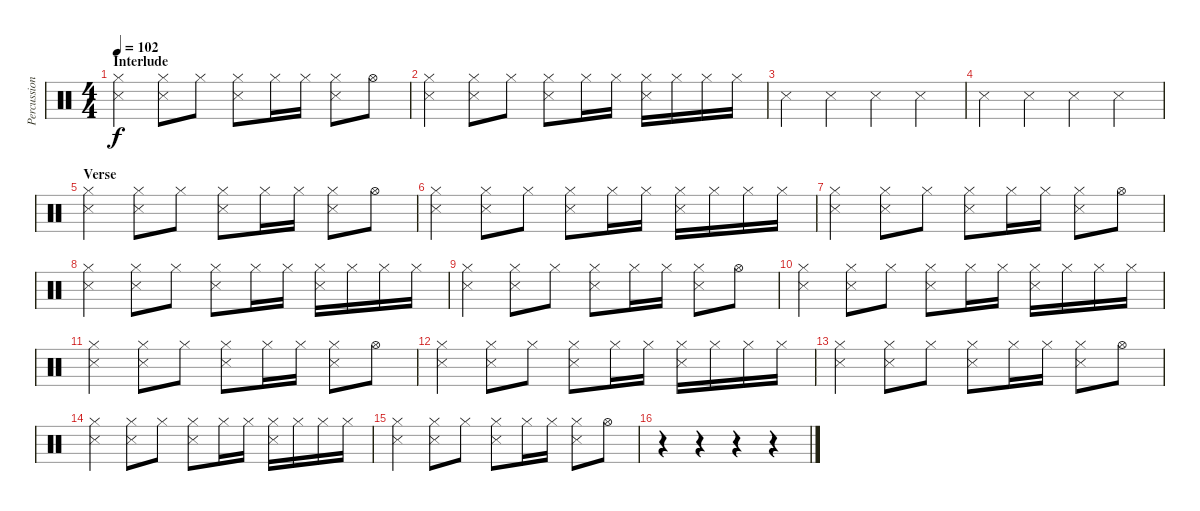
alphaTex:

\track ("Percussion" "Percussion") {instrument percussion}
\staff {score}
\articulation defaults
\ts (4 4)
\section ("" "Interlude")
\tempo 102
\clef neutral
\ks c
("Snare (side stick) 3" "Hi-Hat (closed)").4{dy f} ("Snare (side stick) 3" "Hi-Hat (closed)").8 "Hi-Hat (closed)".8 ("Snare (side stick) 3" "Hi-Hat (closed)").8 "Hi-Hat (closed)".16 "Hi-Hat (closed)".16 ("Snare (side stick) 3" "Hi-Hat (closed)").8 "Hi-Hat (open)".8 |
("Snare (side stick) 3" "Hi-Hat (closed)").4 ("Snare (side stick) 3" "Hi-Hat (closed)").8 "Hi-Hat (closed)".8 ("Snare (side stick) 3" "Hi-Hat (closed)").8 "Hi-Hat (closed)".16 "Hi-Hat (closed)".16 ("Snare (side stick) 3" "Hi-Hat (closed)").16 "Hi-Hat (closed)".16 "Hi-Hat (closed)".16 "Hi-Hat (closed)".16 |
"Snare (side stick) 3".4 "Snare (side stick) 3".4 "Snare (side stick) 3".4 "Snare (side stick) 3".4 |
"Snare (side stick) 3".4 "Snare (side stick) 3".4 "Snare (side stick) 3".4 "Snare (side stick) 3".4 |
\section ("" "Verse")
("Snare (side stick) 3" "Hi-Hat (closed)").4 ("Snare (side stick) 3" "Hi-Hat (closed)").8 "Hi-Hat (closed)".8 ("Snare (side stick) 3" "Hi-Hat (closed)").8 "Hi-Hat (closed)".16 "Hi-Hat (closed)".16 ("Snare (side stick) 3" "Hi-Hat (closed)").8 "Hi-Hat (open)".8 |
("Snare (side stick) 3" "Hi-Hat (closed)").4 ("Snare (side stick) 3" "Hi-Hat (closed)").8 "Hi-Hat (closed)".8 ("Snare (side stick) 3" "Hi-Hat (closed)").8 "Hi-Hat (closed)".16 "Hi-Hat (closed)".16 ("Snare (side stick) 3" "Hi-Hat (closed)").16 "Hi-Hat (closed)".16 "Hi-Hat (closed)".16 "Hi-Hat (closed)".16 |
("Snare (side stick) 3" "Hi-Hat (closed)").4 ("Snare (side stick) 3" "Hi-Hat (closed)").8 "Hi-Hat (closed)".8 ("Snare (side stick) 3" "Hi-Hat (closed)").8 "Hi-Hat (closed)".16 "Hi-Hat (closed)".16 ("Snare (side stick) 3" "Hi-Hat (closed)").8 "Hi-Hat (open)".8 |
("Snare (side stick) 3" "Hi-Hat (closed)").4 ("Snare (side stick) 3" "Hi-Hat (closed)").8 "Hi-Hat (closed)".8 ("Snare (side stick) 3" "Hi-Hat (closed)").8 "Hi-Hat (closed)".16 "Hi-Hat (closed)".16 ("Snare (side stick) 3" "Hi-Hat (closed)").16 "Hi-Hat (closed)".16 "Hi-Hat (closed)".16 "Hi-Hat (closed)".16 |
("Snare (side stick) 3" "Hi-Hat (closed)").4 ("Snare (side stick) 3" "Hi-Hat (closed)").8 "Hi-Hat (closed)".8 ("Snare (side stick) 3" "Hi-Hat (closed)").8 "Hi-Hat (closed)".16 "Hi-Hat (closed)".16 ("Snare (side stick) 3" "Hi-Hat (closed)").8 "Hi-Hat (open)".8 |
("Snare (side stick) 3" "Hi-Hat (closed)").4 ("Snare (side stick) 3" "Hi-Hat (closed)").8 "Hi-Hat (closed)".8 ("Snare (side stick) 3" "Hi-Hat (closed)").8 "Hi-Hat (closed)".16 "Hi-Hat (closed)".16 ("Snare (side stick) 3" "Hi-Hat (closed)").16 "Hi-Hat (closed)".16 "Hi-Hat (closed)".16 "Hi-Hat (closed)".16 |
("Snare (side stick) 3" "Hi-Hat (closed)").4 ("Snare (side stick) 3" "Hi-Hat (closed)").8 "Hi-Hat (closed)".8 ("Snare (side stick) 3" "Hi-Hat (closed)").8 "Hi-Hat (closed)".16 "Hi-Hat (closed)".16 ("Snare (side stick) 3" "Hi-Hat (closed)").8 "Hi-Hat (open)".8 |
("Snare (side stick) 3" "Hi-Hat (closed)").4 ("Snare (side stick) 3" "Hi-Hat (closed)").8 "Hi-Hat (closed)".8 ("Snare (side stick) 3" "Hi-Hat (closed)").8 "Hi-Hat (closed)".16 "Hi-Hat (closed)".16 ("Snare (side stick) 3" "Hi-Hat (closed)").16 "Hi-Hat (closed)".16 "Hi-Hat (closed)".16 "Hi-Hat (closed)".16 |
("Snare (side stick) 3" "Hi-Hat (closed)").4 ("Snare (side stick) 3" "Hi-Hat (closed)").8 "Hi-Hat (closed)".8 ("Snare (side stick) 3" "Hi-Hat (closed)").8 "Hi-Hat (closed)".16 "Hi-Hat (closed)".16 ("Snare (side stick) 3" "Hi-Hat (closed)").8 "Hi-Hat (open)".8 |
("Snare (side stick) 3" "Hi-Hat (closed)").4 ("Snare (side stick) 3" "Hi-Hat (closed)").8 "Hi-Hat (closed)".8 ("Snare (side stick) 3" "Hi-Hat (closed)").8 "Hi-Hat (closed)".16 "Hi-Hat (closed)".16 ("Snare (side stick) 3" "Hi-Hat (closed)").16 "Hi-Hat (closed)".16 "Hi-Hat (closed)".16 "Hi-Hat (closed)".16 |
("Snare (side stick) 3" "Hi-Hat (closed)").4 ("Snare (side stick) 3" "Hi-Hat (closed)").8 "Hi-Hat (closed)".8 ("Snare (side stick) 3" "Hi-Hat (closed)").8 "Hi-Hat (closed)".16 "Hi-Hat (closed)".16 ("Snare (side stick) 3" "Hi-Hat (closed)").8 "Hi-Hat (open)".8 |
r.4 r.4 r.4 r.4
